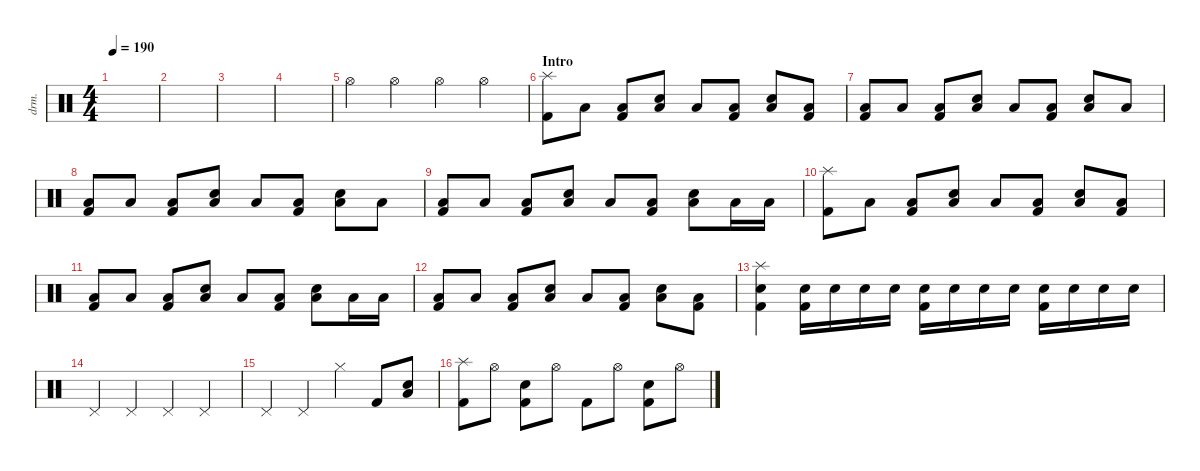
\defaultSystemsLayout 4
\hideDynamics
\bracketExtendMode nobrackets
\track ("Drumkit" "drm.") {solo instrument percussion}
\staff {score}
\articulation defaults
\ts (4 4)
\tempo 190
\clef neutral
\ks c
|
|
|
|
"Hi-Hat (open)".4{beam Down} "Hi-Hat (open)".4{beam Down} "Hi-Hat (open)".4{beam Down} "Hi-Hat (open)".4{beam Down} |
\section ("" "Intro")
("Kick (hit) 2" "Splash (hit)").8{beam Down} "Low Tom (hit)".8{beam Down} ("Low Tom (hit)" "Kick (hit) 2").8{beam Up} ("Low Tom (hit)" "Snare (hit) 2").8{beam Up} "Low Tom (hit)".8{beam Up} ("Low Tom (hit)" "Kick (hit) 2").8{beam Up} ("Low Tom (hit)" "Snare (hit) 2").8{beam Up} ("Low Tom (hit)" "Kick (hit) 2").8{beam Up} |
("Kick (hit) 2" "Low Tom (hit)").8{beam Up} "Low Tom (hit)".8{beam Up} ("Low Tom (hit)" "Kick (hit) 2").8{beam Up} ("Low Tom (hit)" "Snare (hit) 2").8{beam Up} "Low Tom (hit)".8{beam Up} ("Low Tom (hit)" "Kick (hit) 2").8{beam Up} ("Low Tom (hit)" "Snare (hit) 2").8{beam Up} "Low Tom (hit)".8{beam Up} |
("Kick (hit) 2" "Low Tom (hit)").8{beam Up} "Low Tom (hit)".8{beam Up} ("Low Tom (hit)" "Kick (hit) 2").8{beam Up} ("Low Tom (hit)" "Snare (hit) 2").8{beam Up} "Low Tom (hit)".8{beam Up} ("Low Tom (hit)" "Kick (hit) 2").8{beam Up} ("Low Tom (hit)" "Snare (hit) 2").8{beam Down} "Low Tom (hit)".8{beam Down} |
("Kick (hit) 2" "Low Tom (hit)").8{beam Up} "Low Tom (hit)".8{beam Up} ("Low Tom (hit)" "Kick (hit) 2").8{beam Up} ("Low Tom (hit)" "Snare (hit) 2").8{beam Up} "Low Tom (hit)".8{beam Up} ("Low Tom (hit)" "Kick (hit) 2").8{beam Up} ("Low Tom (hit)" "Snare (hit) 2").8{beam Down} "Low Tom (hit)".16{beam Down} "Low Tom (hit)".16{beam Down} |
("Kick (hit) 2" "Splash (hit)").8{beam Down} "Low Tom (hit)".8{beam Down} ("Low Tom (hit)" "Kick (hit) 2").8{beam Up} ("Low Tom (hit)" "Snare (hit) 2").8{beam Up} "Low Tom (hit)".8{beam Up} ("Low Tom (hit)" "Kick (hit) 2").8{beam Up} ("Low Tom (hit)" "Snare (hit) 2").8{beam Up} ("Low Tom (hit)" "Kick (hit) 2").8{beam Up} |
("Kick (hit) 2" "Low Tom (hit)").8{beam Up} "Low Tom (hit)".8{beam Up} ("Low Tom (hit)" "Kick (hit) 2").8{beam Up} ("Low Tom (hit)" "Snare (hit) 2").8{beam Up} "Low Tom (hit)".8{beam Up} ("Low Tom (hit)" "Kick (hit) 2").8{beam Up} ("Low Tom (hit)" "Snare (hit) 2").8{beam Down} "Low Tom (hit)".16{beam Down} "Low Tom (hit)".16{beam Down} |
("Kick (hit) 2" "Low Tom (hit)").8{beam Up} "Low Tom (hit)".8{beam Up} ("Low Tom (hit)" "Kick (hit) 2").8{beam Up} ("Low Tom (hit)" "Snare (hit) 2").8{beam Up} "Low Tom (hit)".8{beam Up} ("Low Tom (hit)" "Kick (hit) 2").8{beam Up} ("Low Tom (hit)" "Snare (hit) 2").8{beam Down} ("Low Tom (hit)" "Kick (hit) 2").8{beam Down} |
("Splash (hit)" "Snare (hit) 2" "Kick (hit) 2").4{beam Down} ("Snare (hit) 2" "Kick (hit) 2").16{beam Down} "Snare (hit) 2".16{beam Down} "Snare (hit) 2".16{beam Down} "Snare (hit) 2".16{beam Down} ("Snare (hit) 2" "Kick (hit) 2").16{beam Down} "Snare (hit) 2".16{beam Down} "Snare (hit) 2".16{beam Down} "Snare (hit) 2".16{beam Down} ("Snare (hit) 2" "Kick (hit) 2").16{beam Down} "Snare (hit) 2".16{beam Down} "Snare (hit) 2".16{beam Down} "Snare (hit) 2".16{beam Down} |
"Pedal Hi-Hat (hit)".4{beam Up} "Pedal Hi-Hat (hit)".4{beam Up} "Pedal Hi-Hat (hit)".4{beam Up} "Pedal Hi-Hat (hit)".4{beam Up} |
"Pedal Hi-Hat (hit)".4{beam Up} "Pedal Hi-Hat (hit)".4{beam Up} "Hi-Hat (closed)".4{beam Down} "Kick (hit) 2".8{beam Up} ("Low Tom (hit)" "Snare (hit) 2").8{beam Up} |
("Kick (hit) 2" "Splash (hit)").8{beam Down} "Hi-Hat (open)".8{beam Down} ("Snare (hit) 2" "Kick (hit) 2").8{beam Down} "Hi-Hat (open)".8{beam Down} "Kick (hit) 2".8{beam Down} "Hi-Hat (open)".8{beam Down} ("Kick (hit) 2" "Snare (hit) 2").8{beam Down} "Hi-Hat (open)".8{beam Down}
